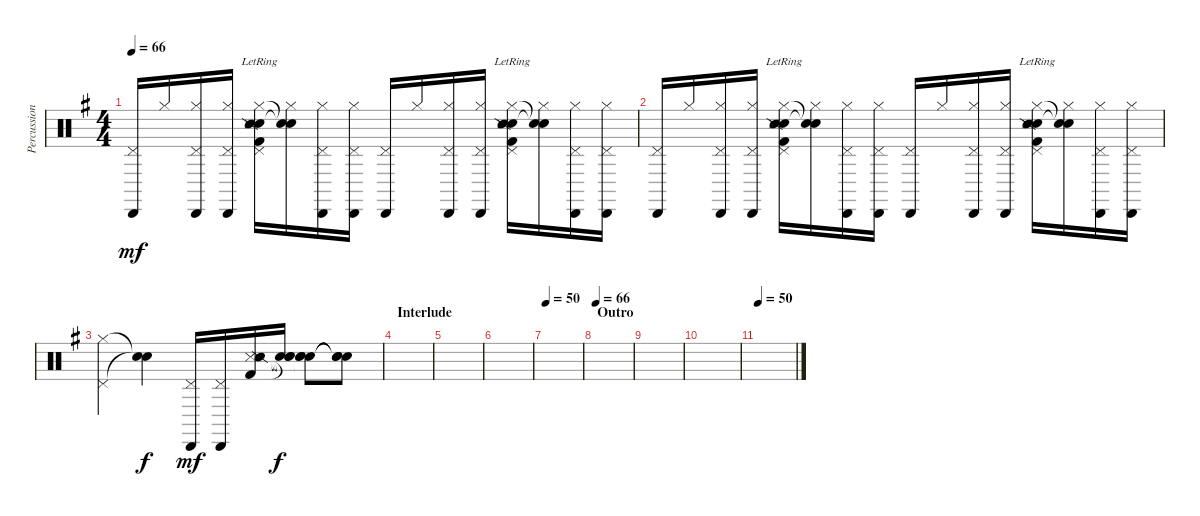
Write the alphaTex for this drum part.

\track ("Percussion" "Percussion") {instrument percussion}
\staff {score}
\articulation defaults
\ts (4 4)
\tempo 66
\clef neutral
\ks g
("Pedal Hi-Hat (hit)" "Cabasa (hit)").16{dy mf} "Hi-Hat (closed)".16 ("Pedal Hi-Hat (hit)" "Hi-Hat (closed)" "Cabasa (hit)").16 ("Pedal Hi-Hat (hit)" "Hi-Hat (closed)" "Cabasa (hit)").16 ("Pedal Hi-Hat (hit)" "Hi-Hat (closed)" "Electric Snare (hit)" "Kick (hit) 2" "Snare (side stick) 3"{lr} "Snare (side stick) 2"{lr}).16 ("Hi-Hat (closed)" "Snare (hit)"{t} "Snare (hit)"{t}).16 ("Pedal Hi-Hat (hit)" "Hi-Hat (closed)" "Cabasa (hit)").16 ("Pedal Hi-Hat (hit)" "Hi-Hat (closed)" "Cabasa (hit)").16 ("Pedal Hi-Hat (hit)" "Cabasa (hit)").16 "Hi-Hat (closed)".16 ("Pedal Hi-Hat (hit)" "Hi-Hat (closed)" "Cabasa (hit)").16 ("Pedal Hi-Hat (hit)" "Hi-Hat (closed)" "Cabasa (hit)").16 ("Pedal Hi-Hat (hit)" "Hi-Hat (closed)" "Electric Snare (hit)" "Kick (hit) 2" "Snare (side stick) 3"{lr} "Snare (side stick) 2"{lr}).16 ("Hi-Hat (closed)" "Snare (hit)"{t} "Snare (hit)"{t}).16 ("Pedal Hi-Hat (hit)" "Hi-Hat (closed)" "Cabasa (hit)").16 ("Pedal Hi-Hat (hit)" "Hi-Hat (closed)" "Cabasa (hit)").16 |
("Pedal Hi-Hat (hit)" "Cabasa (hit)").16 "Hi-Hat (closed)".16 ("Pedal Hi-Hat (hit)" "Hi-Hat (closed)" "Cabasa (hit)").16 ("Pedal Hi-Hat (hit)" "Hi-Hat (closed)" "Cabasa (hit)").16 ("Pedal Hi-Hat (hit)" "Hi-Hat (closed)" "Electric Snare (hit)" "Kick (hit) 2" "Snare (side stick) 3"{lr} "Snare (side stick) 2"{lr}).16 ("Hi-Hat (closed)" "Snare (hit)"{t} "Snare (hit)"{t}).16 ("Pedal Hi-Hat (hit)" "Hi-Hat (closed)" "Cabasa (hit)").16 ("Pedal Hi-Hat (hit)" "Hi-Hat (closed)" "Cabasa (hit)").16 ("Pedal Hi-Hat (hit)" "Cabasa (hit)").16 "Hi-Hat (closed)".16 ("Pedal Hi-Hat (hit)" "Hi-Hat (closed)" "Cabasa (hit)").16 ("Pedal Hi-Hat (hit)" "Hi-Hat (closed)" "Cabasa (hit)").16 ("Pedal Hi-Hat (hit)" "Hi-Hat (closed)" "Electric Snare (hit)" "Kick (hit) 2" "Snare (side stick) 3"{lr} "Snare (side stick) 2"{lr}).16 ("Hi-Hat (closed)" "Snare (hit)"{t} "Snare (hit)"{t}).16 ("Pedal Hi-Hat (hit)" "Hi-Hat (closed)" "Cabasa (hit)").16 ("Pedal Hi-Hat (hit)" "Hi-Hat (closed)" "Cabasa (hit)").16 |
("Pedal Hi-Hat (hit)" "Hi-Hat (closed)").4 ("Snare (hit)"{t} "Snare (hit)"{t}).4{dy f} ("Pedal Hi-Hat (hit)" "Cabasa (hit)").16{dy mf} ("Pedal Hi-Hat (hit)" "Cabasa (hit)").16 ("Kick (hit) 2" "Snare (side stick) 3" "Snare (side stick) 2").16 ("Snare (hit)"{t} "Snare (hit)"{t} "Snare (hit)"{t}).16{dy f} ("Snare (hit)"{t} "Snare (hit)"{t} "Snare (hit)"{t}).8 ("Snare (hit)"{t} "Snare (hit)"{t} "Snare (hit)"{t}).8 |
\section ("" "Interlude")
|
|
|
\tempo 50
|
\section ("" "Outro")
\tempo 66
|
|
|
\tempo 50
